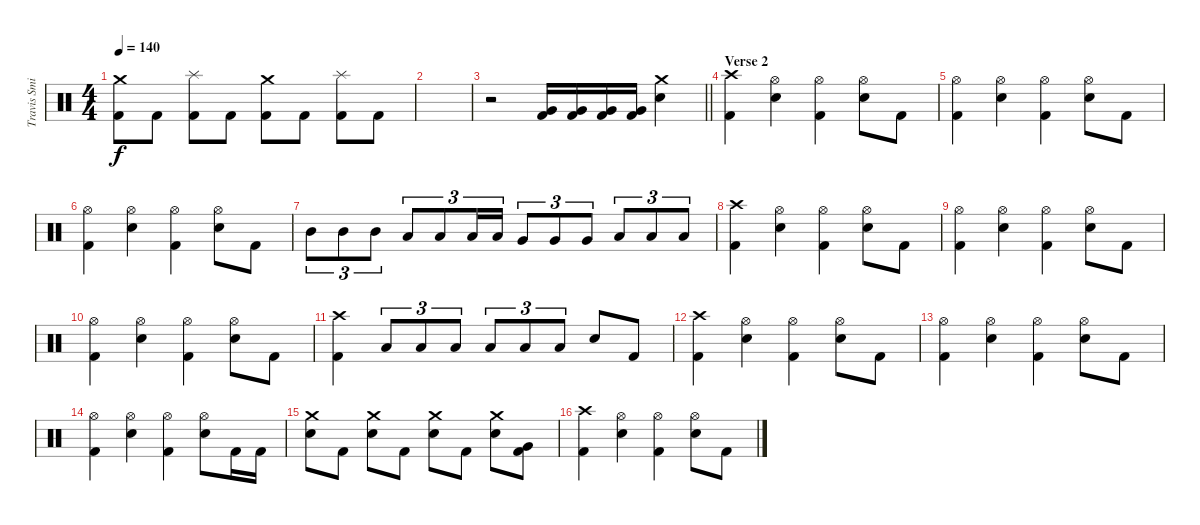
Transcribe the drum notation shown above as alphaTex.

\track ("Travis Smith" "Travis Smi") {instrument percussion}
\staff {score}
\articulation defaults
\ts (4 4)
\tempo 140
\clef neutral
\ks c
("Crash medium (hit)" "Kick (hit) 2").8{dy f} "Kick (hit) 2".8 ("Splash (hit)" "Kick (hit) 2").8 "Kick (hit) 2".8 ("Crash medium (hit)" "Kick (hit) 2").8 "Kick (hit) 2".8 ("Splash (hit)" "Kick (hit) 2").8 "Kick (hit) 2".8 |
|
\barLineRight lightlight
r.2 ("Very Low Tom (hit)" "Kick (hit) 2").16 ("Very Low Tom (hit)" "Kick (hit) 2").16 ("Very Low Tom (hit)" "Kick (hit) 2").16 ("Very Low Tom (hit)" "Kick (hit) 2").16 ("Crash medium (hit)" "Electric Snare (hit)").4 |
\section ("" "Verse 2")
("Crash high (hit)" "Kick (hit) 2").4 ("Hi-Hat (open)" "Electric Snare (hit)").4 ("Hi-Hat (open)" "Kick (hit) 2").4 ("Hi-Hat (open)" "Electric Snare (hit)").8 "Kick (hit) 2".8 |
("Hi-Hat (open)" "Kick (hit) 2").4 ("Hi-Hat (open)" "Electric Snare (hit)").4 ("Hi-Hat (open)" "Kick (hit) 2").4 ("Hi-Hat (open)" "Electric Snare (hit)").8 "Kick (hit) 2".8 |
("Hi-Hat (open)" "Kick (hit) 2").4 ("Hi-Hat (open)" "Electric Snare (hit)").4 ("Hi-Hat (open)" "Kick (hit) 2").4 ("Hi-Hat (open)" "Electric Snare (hit)").8 "Kick (hit) 2".8 |
"Mid Tom (hit)".8{tu (3 2)} "Mid Tom (hit)".8{tu (3 2)} "Mid Tom (hit)".8{tu (3 2)} "Low Tom (hit)".8{tu (3 2)} "Low Tom (hit)".8{tu (3 2)} "Low Tom (hit)".16{tu (3 2)} "Low Tom (hit)".16{tu (3 2)} "Very Low Tom (hit)".8{tu (3 2)} "Very Low Tom (hit)".8{tu (3 2)} "Very Low Tom (hit)".8{tu (3 2)} "Low Floor Tom (hit)".8{tu (3 2)} "Low Floor Tom (hit)".8{tu (3 2)} "Low Floor Tom (hit)".8{tu (3 2)} |
("Crash high (hit)" "Kick (hit) 2").4 ("Hi-Hat (open)" "Electric Snare (hit)").4 ("Hi-Hat (open)" "Kick (hit) 2").4 ("Hi-Hat (open)" "Electric Snare (hit)").8 "Kick (hit) 2".8 |
("Hi-Hat (open)" "Kick (hit) 2").4 ("Hi-Hat (open)" "Electric Snare (hit)").4 ("Hi-Hat (open)" "Kick (hit) 2").4 ("Hi-Hat (open)" "Electric Snare (hit)").8 "Kick (hit) 2".8 |
("Hi-Hat (open)" "Kick (hit) 2").4 ("Hi-Hat (open)" "Electric Snare (hit)").4 ("Hi-Hat (open)" "Kick (hit) 2").4 ("Hi-Hat (open)" "Electric Snare (hit)").8 "Kick (hit) 2".8 |
("Crash high (hit)" "Kick (hit) 2").4 "Low Tom (hit)".8{tu (3 2)} "Low Tom (hit)".8{tu (3 2)} "Low Tom (hit)".8{tu (3 2)} "Low Tom (hit)".8{tu (3 2)} "Low Floor Tom (hit)".8{tu (3 2)} "Low Floor Tom (hit)".8{tu (3 2)} "Electric Snare (hit)".8 "Kick (hit) 2".8 |
("Crash high (hit)" "Kick (hit) 2").4 ("Hi-Hat (open)" "Electric Snare (hit)").4 ("Hi-Hat (open)" "Kick (hit) 2").4 ("Hi-Hat (open)" "Electric Snare (hit)").8 "Kick (hit) 2".8 |
("Hi-Hat (open)" "Kick (hit) 2").4 ("Hi-Hat (open)" "Electric Snare (hit)").4 ("Hi-Hat (open)" "Kick (hit) 2").4 ("Hi-Hat (open)" "Electric Snare (hit)").8 "Kick (hit) 2".8 |
("Hi-Hat (open)" "Kick (hit) 2").4 ("Hi-Hat (open)" "Electric Snare (hit)").4 ("Hi-Hat (open)" "Kick (hit) 2").4 ("Hi-Hat (open)" "Electric Snare (hit)").8 "Kick (hit) 2".16 "Kick (hit) 2".16 |
("Crash medium (hit)" "Electric Snare (hit)").8 "Kick (hit) 2".8 ("Crash medium (hit)" "Electric Snare (hit)").8 "Kick (hit) 2".8 ("Crash medium (hit)" "Electric Snare (hit)").8 "Kick (hit) 2".8 ("Crash medium (hit)" "Electric Snare (hit)").8 ("Very Low Tom (hit)" "Kick (hit) 2").8 |
("Crash high (hit)" "Kick (hit) 2").4 ("Hi-Hat (open)" "Electric Snare (hit)").4 ("Hi-Hat (open)" "Kick (hit) 2").4 ("Hi-Hat (open)" "Electric Snare (hit)").8 "Kick (hit) 2".8
